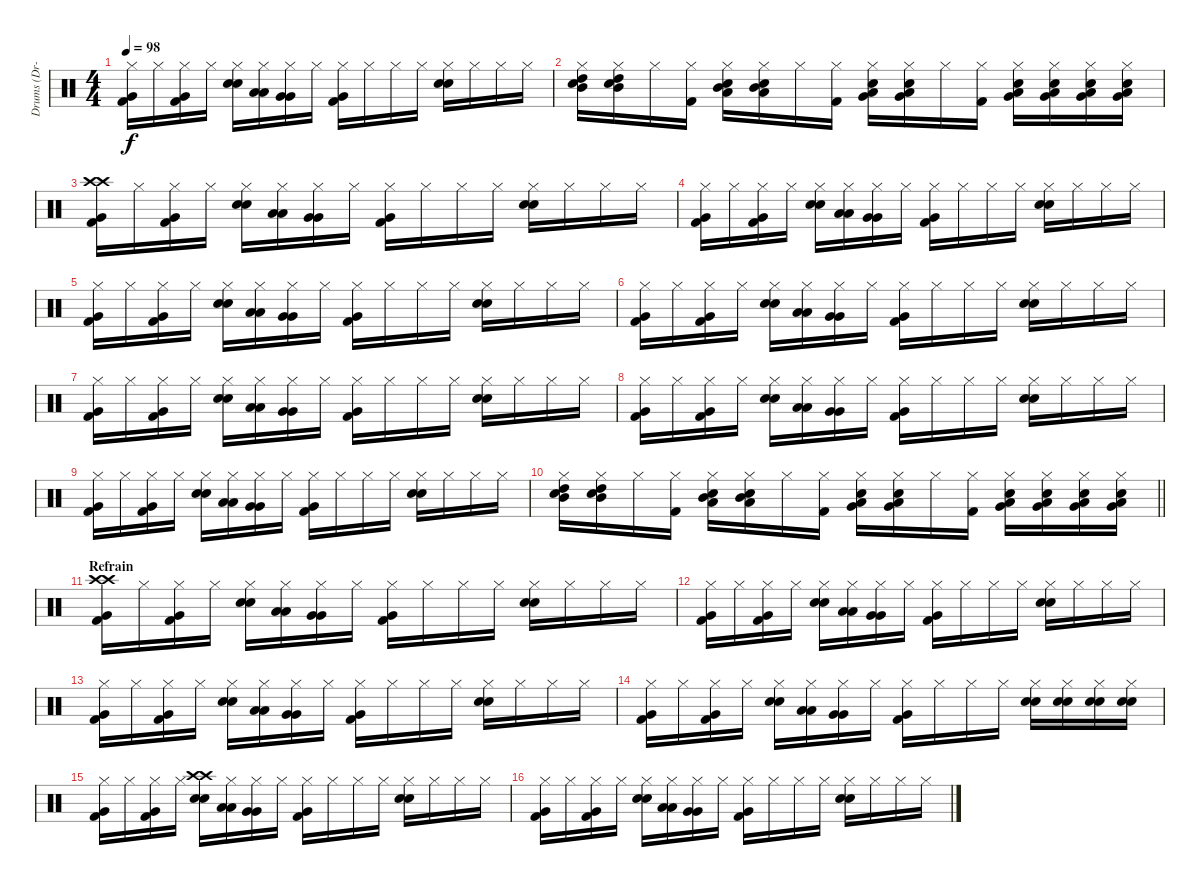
\track ("Drums (Dr-0)" "Drums (Dr-") {instrument percussion}
\staff {score}
\articulation defaults
\ts (4 4)
\tempo 98
\clef neutral
\ks c
("Hi-Hat (closed)" "Very Low Tom (hit)" "Kick (hit) 2").16{dy f} "Hi-Hat (closed)".16 ("Hi-Hat (closed)" "Very Low Tom (hit)" "Kick (hit) 2").16 "Hi-Hat (closed)".16 ("Hi-Hat (closed)" "Electric Snare (hit)" "Snare (hit) 2").16 ("Hi-Hat (closed)" "Low Tom (hit)" "Low Tom (hit)").16 ("Hi-Hat (closed)" "Very Low Tom (hit)" "Very Low Tom (hit)").16 "Hi-Hat (closed)".16 ("Hi-Hat (closed)" "Very Low Tom (hit)" "Kick (hit) 2").16 "Hi-Hat (closed)".16 "Hi-Hat (closed)".16 "Hi-Hat (closed)".16 ("Hi-Hat (closed)" "Electric Snare (hit)" "Snare (hit) 2").16 "Hi-Hat (closed)".16 "Hi-Hat (closed)".16 "Hi-Hat (closed)".16 |
("Hi-Hat (closed)" "High Tom (hit)" "Mid Tom (hit)" "Electric Snare (hit)").16 ("Hi-Hat (closed)" "High Tom (hit)" "Mid Tom (hit)" "Electric Snare (hit)").16 "Hi-Hat (closed)".16 ("Hi-Hat (closed)" "Kick (hit) 2").16 ("Hi-Hat (closed)" "Mid Tom (hit)" "Low Tom (hit)" "Electric Snare (hit)").16 ("Hi-Hat (closed)" "Mid Tom (hit)" "Low Tom (hit)" "Electric Snare (hit)").16 "Hi-Hat (closed)".16 ("Hi-Hat (closed)" "Kick (hit) 2").16 ("Hi-Hat (closed)" "Low Tom (hit)" "Very Low Tom (hit)" "Electric Snare (hit)").16 ("Hi-Hat (closed)" "Low Tom (hit)" "Very Low Tom (hit)" "Electric Snare (hit)").16 "Hi-Hat (closed)".16 ("Hi-Hat (closed)" "Kick (hit) 2").16 ("Hi-Hat (closed)" "Very Low Tom (hit)" "Low Floor Tom (hit)" "Electric Snare (hit)").16 ("Hi-Hat (closed)" "Very Low Tom (hit)" "Low Floor Tom (hit)" "Electric Snare (hit)").16 ("Hi-Hat (closed)" "Very Low Tom (hit)" "Low Floor Tom (hit)" "Electric Snare (hit)").16 ("Hi-Hat (closed)" "Very Low Tom (hit)" "Low Floor Tom (hit)" "Electric Snare (hit)").16 |
("Crash high (hit)" "Crash high (hit)" "Very Low Tom (hit)" "Kick (hit) 2").16 "Hi-Hat (closed)".16 ("Hi-Hat (closed)" "Very Low Tom (hit)" "Kick (hit) 2").16 "Hi-Hat (closed)".16 ("Hi-Hat (closed)" "Electric Snare (hit)" "Snare (hit) 2").16 ("Hi-Hat (closed)" "Low Tom (hit)" "Low Tom (hit)").16 ("Hi-Hat (closed)" "Very Low Tom (hit)" "Very Low Tom (hit)").16 "Hi-Hat (closed)".16 ("Hi-Hat (closed)" "Very Low Tom (hit)" "Kick (hit) 2").16 "Hi-Hat (closed)".16 "Hi-Hat (closed)".16 "Hi-Hat (closed)".16 ("Hi-Hat (closed)" "Electric Snare (hit)" "Snare (hit) 2").16 "Hi-Hat (closed)".16 "Hi-Hat (closed)".16 "Hi-Hat (closed)".16 |
("Hi-Hat (closed)" "Very Low Tom (hit)" "Kick (hit) 2").16 "Hi-Hat (closed)".16 ("Hi-Hat (closed)" "Very Low Tom (hit)" "Kick (hit) 2").16 "Hi-Hat (closed)".16 ("Hi-Hat (closed)" "Electric Snare (hit)" "Snare (hit) 2").16 ("Hi-Hat (closed)" "Low Tom (hit)" "Low Tom (hit)").16 ("Hi-Hat (closed)" "Very Low Tom (hit)" "Very Low Tom (hit)").16 "Hi-Hat (closed)".16 ("Hi-Hat (closed)" "Very Low Tom (hit)" "Kick (hit) 2").16 "Hi-Hat (closed)".16 "Hi-Hat (closed)".16 "Hi-Hat (closed)".16 ("Hi-Hat (closed)" "Electric Snare (hit)" "Snare (hit) 2").16 "Hi-Hat (closed)".16 "Hi-Hat (closed)".16 "Hi-Hat (closed)".16 |
("Hi-Hat (closed)" "Very Low Tom (hit)" "Kick (hit) 2").16 "Hi-Hat (closed)".16 ("Hi-Hat (closed)" "Very Low Tom (hit)" "Kick (hit) 2").16 "Hi-Hat (closed)".16 ("Hi-Hat (closed)" "Electric Snare (hit)" "Snare (hit) 2").16 ("Hi-Hat (closed)" "Low Tom (hit)" "Low Tom (hit)").16 ("Hi-Hat (closed)" "Very Low Tom (hit)" "Very Low Tom (hit)").16 "Hi-Hat (closed)".16 ("Hi-Hat (closed)" "Very Low Tom (hit)" "Kick (hit) 2").16 "Hi-Hat (closed)".16 "Hi-Hat (closed)".16 "Hi-Hat (closed)".16 ("Hi-Hat (closed)" "Electric Snare (hit)" "Snare (hit) 2").16 "Hi-Hat (closed)".16 "Hi-Hat (closed)".16 "Hi-Hat (closed)".16 |
("Hi-Hat (closed)" "Very Low Tom (hit)" "Kick (hit) 2").16 "Hi-Hat (closed)".16 ("Hi-Hat (closed)" "Very Low Tom (hit)" "Kick (hit) 2").16 "Hi-Hat (closed)".16 ("Hi-Hat (closed)" "Electric Snare (hit)" "Snare (hit) 2").16 ("Hi-Hat (closed)" "Low Tom (hit)" "Low Tom (hit)").16 ("Hi-Hat (closed)" "Very Low Tom (hit)" "Very Low Tom (hit)").16 "Hi-Hat (closed)".16 ("Hi-Hat (closed)" "Very Low Tom (hit)" "Kick (hit) 2").16 "Hi-Hat (closed)".16 "Hi-Hat (closed)".16 "Hi-Hat (closed)".16 ("Hi-Hat (closed)" "Electric Snare (hit)" "Snare (hit) 2").16 "Hi-Hat (closed)".16 "Hi-Hat (closed)".16 "Hi-Hat (closed)".16 |
("Hi-Hat (closed)" "Very Low Tom (hit)" "Kick (hit) 2").16 "Hi-Hat (closed)".16 ("Hi-Hat (closed)" "Very Low Tom (hit)" "Kick (hit) 2").16 "Hi-Hat (closed)".16 ("Hi-Hat (closed)" "Electric Snare (hit)" "Snare (hit) 2").16 ("Hi-Hat (closed)" "Low Tom (hit)" "Low Tom (hit)").16 ("Hi-Hat (closed)" "Very Low Tom (hit)" "Very Low Tom (hit)").16 "Hi-Hat (closed)".16 ("Hi-Hat (closed)" "Very Low Tom (hit)" "Kick (hit) 2").16 "Hi-Hat (closed)".16 "Hi-Hat (closed)".16 "Hi-Hat (closed)".16 ("Hi-Hat (closed)" "Electric Snare (hit)" "Snare (hit) 2").16 "Hi-Hat (closed)".16 "Hi-Hat (closed)".16 "Hi-Hat (closed)".16 |
("Hi-Hat (closed)" "Very Low Tom (hit)" "Kick (hit) 2").16 "Hi-Hat (closed)".16 ("Hi-Hat (closed)" "Very Low Tom (hit)" "Kick (hit) 2").16 "Hi-Hat (closed)".16 ("Hi-Hat (closed)" "Electric Snare (hit)" "Snare (hit) 2").16 ("Hi-Hat (closed)" "Low Tom (hit)" "Low Tom (hit)").16 ("Hi-Hat (closed)" "Very Low Tom (hit)" "Very Low Tom (hit)").16 "Hi-Hat (closed)".16 ("Hi-Hat (closed)" "Very Low Tom (hit)" "Kick (hit) 2").16 "Hi-Hat (closed)".16 "Hi-Hat (closed)".16 "Hi-Hat (closed)".16 ("Hi-Hat (closed)" "Electric Snare (hit)" "Snare (hit) 2").16 "Hi-Hat (closed)".16 "Hi-Hat (closed)".16 "Hi-Hat (closed)".16 |
("Hi-Hat (closed)" "Very Low Tom (hit)" "Kick (hit) 2").16 "Hi-Hat (closed)".16 ("Hi-Hat (closed)" "Very Low Tom (hit)" "Kick (hit) 2").16 "Hi-Hat (closed)".16 ("Hi-Hat (closed)" "Electric Snare (hit)" "Snare (hit) 2").16 ("Hi-Hat (closed)" "Low Tom (hit)" "Low Tom (hit)").16 ("Hi-Hat (closed)" "Very Low Tom (hit)" "Very Low Tom (hit)").16 "Hi-Hat (closed)".16 ("Hi-Hat (closed)" "Very Low Tom (hit)" "Kick (hit) 2").16 "Hi-Hat (closed)".16 "Hi-Hat (closed)".16 "Hi-Hat (closed)".16 ("Hi-Hat (closed)" "Electric Snare (hit)" "Snare (hit) 2").16 "Hi-Hat (closed)".16 "Hi-Hat (closed)".16 "Hi-Hat (closed)".16 |
\barLineRight lightlight
("Hi-Hat (closed)" "High Tom (hit)" "Mid Tom (hit)" "Electric Snare (hit)").16 ("Hi-Hat (closed)" "High Tom (hit)" "Mid Tom (hit)" "Electric Snare (hit)").16 "Hi-Hat (closed)".16 ("Hi-Hat (closed)" "Kick (hit) 2").16 ("Hi-Hat (closed)" "Mid Tom (hit)" "Low Tom (hit)" "Electric Snare (hit)").16 ("Hi-Hat (closed)" "Mid Tom (hit)" "Low Tom (hit)" "Electric Snare (hit)").16 "Hi-Hat (closed)".16 ("Hi-Hat (closed)" "Kick (hit) 2").16 ("Hi-Hat (closed)" "Low Tom (hit)" "Very Low Tom (hit)" "Electric Snare (hit)").16 ("Hi-Hat (closed)" "Low Tom (hit)" "Very Low Tom (hit)" "Electric Snare (hit)").16 "Hi-Hat (closed)".16 ("Hi-Hat (closed)" "Kick (hit) 2").16 ("Hi-Hat (closed)" "Very Low Tom (hit)" "Low Floor Tom (hit)" "Electric Snare (hit)").16 ("Hi-Hat (closed)" "Very Low Tom (hit)" "Low Floor Tom (hit)" "Electric Snare (hit)").16 ("Hi-Hat (closed)" "Very Low Tom (hit)" "Low Floor Tom (hit)" "Electric Snare (hit)").16 ("Hi-Hat (closed)" "Very Low Tom (hit)" "Low Floor Tom (hit)" "Electric Snare (hit)").16 |
\section ("" "Refrain")
("Crash high (hit)" "Crash high (hit)" "Very Low Tom (hit)" "Kick (hit) 2").16 "Hi-Hat (closed)".16 ("Hi-Hat (closed)" "Very Low Tom (hit)" "Kick (hit) 2").16 "Hi-Hat (closed)".16 ("Hi-Hat (closed)" "Electric Snare (hit)" "Snare (hit) 2").16 ("Hi-Hat (closed)" "Low Tom (hit)" "Low Tom (hit)").16 ("Hi-Hat (closed)" "Very Low Tom (hit)" "Very Low Tom (hit)").16 "Hi-Hat (closed)".16 ("Hi-Hat (closed)" "Very Low Tom (hit)" "Kick (hit) 2").16 "Hi-Hat (closed)".16 "Hi-Hat (closed)".16 "Hi-Hat (closed)".16 ("Hi-Hat (closed)" "Electric Snare (hit)" "Snare (hit) 2").16 "Hi-Hat (closed)".16 "Hi-Hat (closed)".16 "Hi-Hat (closed)".16 |
("Hi-Hat (closed)" "Very Low Tom (hit)" "Kick (hit) 2").16 "Hi-Hat (closed)".16 ("Hi-Hat (closed)" "Very Low Tom (hit)" "Kick (hit) 2").16 "Hi-Hat (closed)".16 ("Hi-Hat (closed)" "Electric Snare (hit)" "Snare (hit) 2").16 ("Hi-Hat (closed)" "Low Tom (hit)" "Low Tom (hit)").16 ("Hi-Hat (closed)" "Very Low Tom (hit)" "Very Low Tom (hit)").16 "Hi-Hat (closed)".16 ("Hi-Hat (closed)" "Very Low Tom (hit)" "Kick (hit) 2").16 "Hi-Hat (closed)".16 "Hi-Hat (closed)".16 "Hi-Hat (closed)".16 ("Hi-Hat (closed)" "Electric Snare (hit)" "Snare (hit) 2").16 "Hi-Hat (closed)".16 "Hi-Hat (closed)".16 "Hi-Hat (closed)".16 |
("Hi-Hat (closed)" "Very Low Tom (hit)" "Kick (hit) 2").16 "Hi-Hat (closed)".16 ("Hi-Hat (closed)" "Very Low Tom (hit)" "Kick (hit) 2").16 "Hi-Hat (closed)".16 ("Hi-Hat (closed)" "Electric Snare (hit)" "Snare (hit) 2").16 ("Hi-Hat (closed)" "Low Tom (hit)" "Low Tom (hit)").16 ("Hi-Hat (closed)" "Very Low Tom (hit)" "Very Low Tom (hit)").16 "Hi-Hat (closed)".16 ("Hi-Hat (closed)" "Very Low Tom (hit)" "Kick (hit) 2").16 "Hi-Hat (closed)".16 "Hi-Hat (closed)".16 "Hi-Hat (closed)".16 ("Hi-Hat (closed)" "Electric Snare (hit)" "Snare (hit) 2").16 "Hi-Hat (closed)".16 "Hi-Hat (closed)".16 "Hi-Hat (closed)".16 |
("Hi-Hat (closed)" "Very Low Tom (hit)" "Kick (hit) 2").16 "Hi-Hat (closed)".16 ("Hi-Hat (closed)" "Very Low Tom (hit)" "Kick (hit) 2").16 "Hi-Hat (closed)".16 ("Hi-Hat (closed)" "Electric Snare (hit)" "Snare (hit) 2").16 ("Hi-Hat (closed)" "Low Tom (hit)" "Low Tom (hit)").16 ("Hi-Hat (closed)" "Very Low Tom (hit)" "Very Low Tom (hit)").16 "Hi-Hat (closed)".16 ("Hi-Hat (closed)" "Very Low Tom (hit)" "Kick (hit) 2").16 "Hi-Hat (closed)".16 "Hi-Hat (closed)".16 "Hi-Hat (closed)".16 ("Hi-Hat (closed)" "Electric Snare (hit)" "Snare (hit) 2").16 ("Hi-Hat (closed)" "Electric Snare (hit)" "Snare (hit) 2").16 ("Hi-Hat (closed)" "Electric Snare (hit)" "Snare (hit) 2").16 ("Hi-Hat (closed)" "Electric Snare (hit)" "Snare (hit) 2").16 |
("Hi-Hat (closed)" "Very Low Tom (hit)" "Kick (hit) 2").16 "Hi-Hat (closed)".16 ("Hi-Hat (closed)" "Very Low Tom (hit)" "Kick (hit) 2").16 "Hi-Hat (closed)".16 ("Crash high (hit)" "Crash high (hit)" "Electric Snare (hit)" "Snare (hit) 2").16 ("Hi-Hat (closed)" "Low Tom (hit)" "Low Tom (hit)").16 ("Hi-Hat (closed)" "Very Low Tom (hit)" "Very Low Tom (hit)").16 "Hi-Hat (closed)".16 ("Hi-Hat (closed)" "Very Low Tom (hit)" "Kick (hit) 2").16 "Hi-Hat (closed)".16 "Hi-Hat (closed)".16 "Hi-Hat (closed)".16 ("Hi-Hat (closed)" "Electric Snare (hit)" "Snare (hit) 2").16 "Hi-Hat (closed)".16 "Hi-Hat (closed)".16 "Hi-Hat (closed)".16 |
("Hi-Hat (closed)" "Very Low Tom (hit)" "Kick (hit) 2").16 "Hi-Hat (closed)".16 ("Hi-Hat (closed)" "Very Low Tom (hit)" "Kick (hit) 2").16 "Hi-Hat (closed)".16 ("Hi-Hat (closed)" "Electric Snare (hit)" "Snare (hit) 2").16 ("Hi-Hat (closed)" "Low Tom (hit)" "Low Tom (hit)").16 ("Hi-Hat (closed)" "Very Low Tom (hit)" "Very Low Tom (hit)").16 "Hi-Hat (closed)".16 ("Hi-Hat (closed)" "Very Low Tom (hit)" "Kick (hit) 2").16 "Hi-Hat (closed)".16 "Hi-Hat (closed)".16 "Hi-Hat (closed)".16 ("Hi-Hat (closed)" "Electric Snare (hit)" "Snare (hit) 2").16 "Hi-Hat (closed)".16 "Hi-Hat (closed)".16 "Hi-Hat (closed)".16
